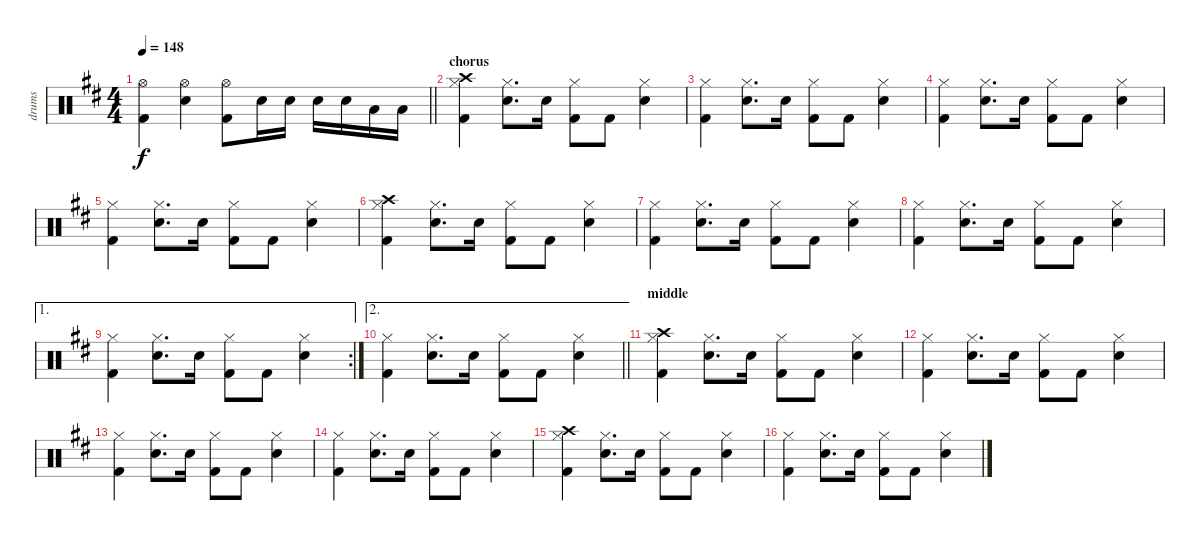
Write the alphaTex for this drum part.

\track ("drums" "drums") {instrument percussion}
\staff {score}
\articulation defaults
\ts (4 4)
\tempo 148
\clef neutral
\barLineRight lightlight
\ks d
("Hi-Hat (open)" "Kick (hit) 2").4{dy f} ("Hi-Hat (open)" "Electric Snare (hit)").4 ("Hi-Hat (open)" "Kick (hit) 2").8 "Electric Snare (hit)".16 "Electric Snare (hit)".16 "Electric Snare (hit)".16 "Electric Snare (hit)".16 "Low Tom (hit)".16 "Low Tom (hit)".16 |
\section ("" "chorus")
("Hi-Hat (closed)" "Kick (hit) 2" "Crash high (hit)").4 ("Hi-Hat (closed)" "Electric Snare (hit)").8{d} "Electric Snare (hit)".16 ("Hi-Hat (closed)" "Kick (hit) 2").8 "Kick (hit) 2".8 ("Hi-Hat (closed)" "Electric Snare (hit)").4 |
("Hi-Hat (closed)" "Kick (hit) 2").4 ("Hi-Hat (closed)" "Electric Snare (hit)").8{d} "Electric Snare (hit)".16 ("Hi-Hat (closed)" "Kick (hit) 2").8 "Kick (hit) 2".8 ("Hi-Hat (closed)" "Electric Snare (hit)").4 |
("Hi-Hat (closed)" "Kick (hit) 2").4 ("Hi-Hat (closed)" "Electric Snare (hit)").8{d} "Electric Snare (hit)".16 ("Hi-Hat (closed)" "Kick (hit) 2").8 "Kick (hit) 2".8 ("Hi-Hat (closed)" "Electric Snare (hit)").4 |
("Hi-Hat (closed)" "Kick (hit) 2").4 ("Hi-Hat (closed)" "Electric Snare (hit)").8{d} "Electric Snare (hit)".16 ("Hi-Hat (closed)" "Kick (hit) 2").8 "Kick (hit) 2".8 ("Hi-Hat (closed)" "Electric Snare (hit)").4 |
("Hi-Hat (closed)" "Kick (hit) 2" "Crash high (hit)").4 ("Hi-Hat (closed)" "Electric Snare (hit)").8{d} "Electric Snare (hit)".16 ("Hi-Hat (closed)" "Kick (hit) 2").8 "Kick (hit) 2".8 ("Hi-Hat (closed)" "Electric Snare (hit)").4 |
("Hi-Hat (closed)" "Kick (hit) 2").4 ("Hi-Hat (closed)" "Electric Snare (hit)").8{d} "Electric Snare (hit)".16 ("Hi-Hat (closed)" "Kick (hit) 2").8 "Kick (hit) 2".8 ("Hi-Hat (closed)" "Electric Snare (hit)").4 |
("Hi-Hat (closed)" "Kick (hit) 2").4 ("Hi-Hat (closed)" "Electric Snare (hit)").8{d} "Electric Snare (hit)".16 ("Hi-Hat (closed)" "Kick (hit) 2").8 "Kick (hit) 2".8 ("Hi-Hat (closed)" "Electric Snare (hit)").4 |
\ae 1
\rc 2
("Hi-Hat (closed)" "Kick (hit) 2").4 ("Hi-Hat (closed)" "Electric Snare (hit)").8{d} "Electric Snare (hit)".16 ("Hi-Hat (closed)" "Kick (hit) 2").8 "Kick (hit) 2".8 ("Hi-Hat (closed)" "Electric Snare (hit)").4 |
\ae 2
\barLineRight lightlight
("Hi-Hat (closed)" "Kick (hit) 2").4 ("Hi-Hat (closed)" "Electric Snare (hit)").8{d} "Electric Snare (hit)".16 ("Hi-Hat (closed)" "Kick (hit) 2").8 "Kick (hit) 2".8 ("Hi-Hat (closed)" "Electric Snare (hit)").4 |
\section ("" "middle")
("Hi-Hat (closed)" "Kick (hit) 2" "Crash high (hit)").4 ("Hi-Hat (closed)" "Electric Snare (hit)").8{d} "Electric Snare (hit)".16 ("Hi-Hat (closed)" "Kick (hit) 2").8 "Kick (hit) 2".8 ("Hi-Hat (closed)" "Electric Snare (hit)").4 |
("Hi-Hat (closed)" "Kick (hit) 2").4 ("Hi-Hat (closed)" "Electric Snare (hit)").8{d} "Electric Snare (hit)".16 ("Hi-Hat (closed)" "Kick (hit) 2").8 "Kick (hit) 2".8 ("Hi-Hat (closed)" "Electric Snare (hit)").4 |
("Hi-Hat (closed)" "Kick (hit) 2").4 ("Hi-Hat (closed)" "Electric Snare (hit)").8{d} "Electric Snare (hit)".16 ("Hi-Hat (closed)" "Kick (hit) 2").8 "Kick (hit) 2".8 ("Hi-Hat (closed)" "Electric Snare (hit)").4 |
("Hi-Hat (closed)" "Kick (hit) 2").4 ("Hi-Hat (closed)" "Electric Snare (hit)").8{d} "Electric Snare (hit)".16 ("Hi-Hat (closed)" "Kick (hit) 2").8 "Kick (hit) 2".8 ("Hi-Hat (closed)" "Electric Snare (hit)").4 |
("Hi-Hat (closed)" "Kick (hit) 2" "Crash high (hit)").4 ("Hi-Hat (closed)" "Electric Snare (hit)").8{d} "Electric Snare (hit)".16 ("Hi-Hat (closed)" "Kick (hit) 2").8 "Kick (hit) 2".8 ("Hi-Hat (closed)" "Electric Snare (hit)").4 |
("Hi-Hat (closed)" "Kick (hit) 2").4 ("Hi-Hat (closed)" "Electric Snare (hit)").8{d} "Electric Snare (hit)".16 ("Hi-Hat (closed)" "Kick (hit) 2").8 "Kick (hit) 2".8 ("Hi-Hat (closed)" "Electric Snare (hit)").4
